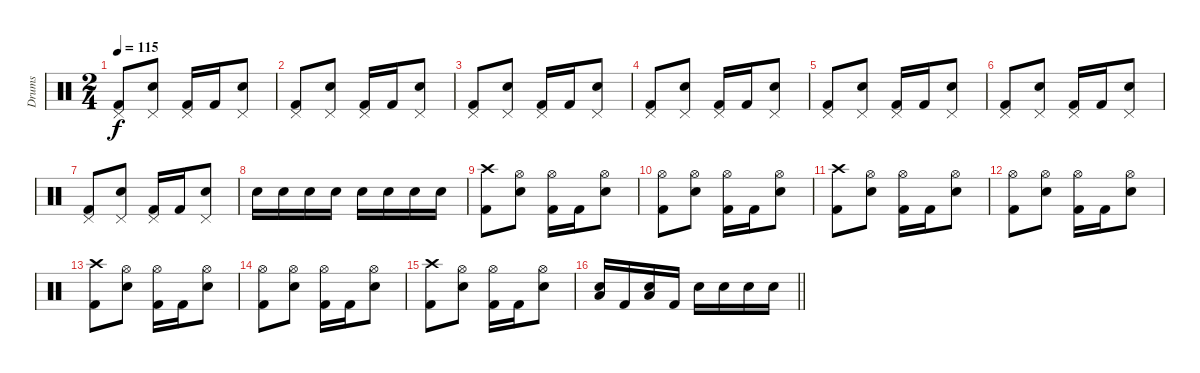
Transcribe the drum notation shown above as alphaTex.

\track ("Drums" "Drums") {instrument percussion}
\staff {score}
\articulation defaults
\ts (2 4)
\tempo 115
\clef neutral
\ks c
("Pedal Hi-Hat (hit)" "Kick (hit) 2").8{dy f} ("Pedal Hi-Hat (hit)" "Electric Snare (hit)").8 ("Pedal Hi-Hat (hit)" "Kick (hit) 2").16 "Kick (hit) 2".16 ("Pedal Hi-Hat (hit)" "Electric Snare (hit)").8 |
("Pedal Hi-Hat (hit)" "Kick (hit) 2").8 ("Pedal Hi-Hat (hit)" "Electric Snare (hit)").8 ("Pedal Hi-Hat (hit)" "Kick (hit) 2").16 "Kick (hit) 2".16 ("Pedal Hi-Hat (hit)" "Electric Snare (hit)").8 |
("Pedal Hi-Hat (hit)" "Kick (hit) 2").8 ("Pedal Hi-Hat (hit)" "Electric Snare (hit)").8 ("Pedal Hi-Hat (hit)" "Kick (hit) 2").16 "Kick (hit) 2".16 ("Pedal Hi-Hat (hit)" "Electric Snare (hit)").8 |
("Pedal Hi-Hat (hit)" "Kick (hit) 2").8 ("Pedal Hi-Hat (hit)" "Electric Snare (hit)").8 ("Pedal Hi-Hat (hit)" "Kick (hit) 2").16 "Kick (hit) 2".16 ("Pedal Hi-Hat (hit)" "Electric Snare (hit)").8 |
("Pedal Hi-Hat (hit)" "Kick (hit) 2").8 ("Pedal Hi-Hat (hit)" "Electric Snare (hit)").8 ("Pedal Hi-Hat (hit)" "Kick (hit) 2").16 "Kick (hit) 2".16 ("Pedal Hi-Hat (hit)" "Electric Snare (hit)").8 |
("Pedal Hi-Hat (hit)" "Kick (hit) 2").8 ("Pedal Hi-Hat (hit)" "Electric Snare (hit)").8 ("Pedal Hi-Hat (hit)" "Kick (hit) 2").16 "Kick (hit) 2".16 ("Pedal Hi-Hat (hit)" "Electric Snare (hit)").8 |
("Pedal Hi-Hat (hit)" "Kick (hit) 2").8 ("Pedal Hi-Hat (hit)" "Electric Snare (hit)").8 ("Pedal Hi-Hat (hit)" "Kick (hit) 2").16 "Kick (hit) 2".16 ("Pedal Hi-Hat (hit)" "Electric Snare (hit)").8 |
"Electric Snare (hit)".16 "Electric Snare (hit)".16 "Electric Snare (hit)".16 "Electric Snare (hit)".16 "Electric Snare (hit)".16 "Electric Snare (hit)".16 "Electric Snare (hit)".16 "Electric Snare (hit)".16 |
("Crash high (hit)" "Kick (hit) 2").8 ("Hi-Hat (open)" "Electric Snare (hit)").8 ("Hi-Hat (open)" "Kick (hit) 2").16 "Kick (hit) 2".16 ("Hi-Hat (open)" "Electric Snare (hit)").8 |
("Hi-Hat (open)" "Kick (hit) 2").8 ("Hi-Hat (open)" "Electric Snare (hit)").8 ("Hi-Hat (open)" "Kick (hit) 2").16 "Kick (hit) 2".16 ("Hi-Hat (open)" "Electric Snare (hit)").8 |
("Crash high (hit)" "Kick (hit) 2").8 ("Hi-Hat (open)" "Electric Snare (hit)").8 ("Hi-Hat (open)" "Kick (hit) 2").16 "Kick (hit) 2".16 ("Hi-Hat (open)" "Electric Snare (hit)").8 |
("Hi-Hat (open)" "Kick (hit) 2").8 ("Hi-Hat (open)" "Electric Snare (hit)").8 ("Hi-Hat (open)" "Kick (hit) 2").16 "Kick (hit) 2".16 ("Hi-Hat (open)" "Electric Snare (hit)").8 |
("Crash high (hit)" "Kick (hit) 2").8 ("Hi-Hat (open)" "Electric Snare (hit)").8 ("Hi-Hat (open)" "Kick (hit) 2").16 "Kick (hit) 2".16 ("Hi-Hat (open)" "Electric Snare (hit)").8 |
("Hi-Hat (open)" "Kick (hit) 2").8 ("Hi-Hat (open)" "Electric Snare (hit)").8 ("Hi-Hat (open)" "Kick (hit) 2").16 "Kick (hit) 2".16 ("Hi-Hat (open)" "Electric Snare (hit)").8 |
("Crash high (hit)" "Kick (hit) 2").8 ("Hi-Hat (open)" "Electric Snare (hit)").8 ("Hi-Hat (open)" "Kick (hit) 2").16 "Kick (hit) 2".16 ("Hi-Hat (open)" "Electric Snare (hit)").8 |
\barLineRight lightlight
("Low Floor Tom (hit)" "Electric Snare (hit)").16 "Kick (hit) 2".16 ("Low Floor Tom (hit)" "Electric Snare (hit)").16 "Kick (hit) 2".16 "Electric Snare (hit)".16 "Electric Snare (hit)".16 "Electric Snare (hit)".16 "Electric Snare (hit)".16
